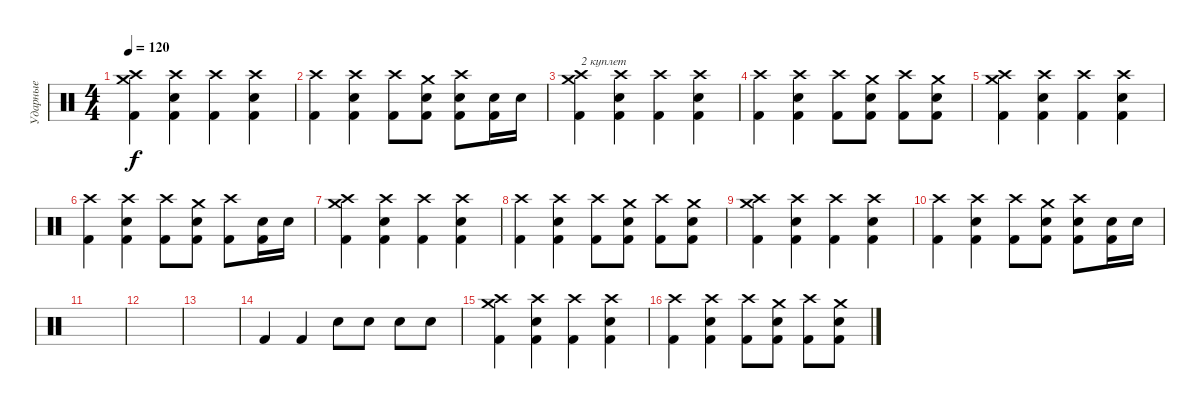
\track ("Ударные" "Ударные") {instrument percussion}
\staff {score}
\articulation defaults
\ts (4 4)
\tempo 120
\clef neutral
\ks c
("Crash medium (hit)" "Crash high (hit)" "Kick (hit) 2").4{dy f} ("Crash high (hit)" "Snare (hit) 2" "Kick (hit) 2").4 ("Crash high (hit)" "Kick (hit) 2").4 ("Crash high (hit)" "Snare (hit) 2" "Kick (hit) 2").4 |
("Crash high (hit)" "Kick (hit) 2").4 ("Crash high (hit)" "Snare (hit) 2" "Kick (hit) 2").4 ("Crash high (hit)" "Kick (hit) 2").8 ("Crash medium (hit)" "Snare (hit) 2" "Kick (hit) 2").8 ("Crash high (hit)" "Snare (hit) 2" "Kick (hit) 2").8 ("Snare (hit) 2" "Kick (hit) 2").16 "Snare (hit) 2".16 |
("Crash medium (hit)" "Crash high (hit)" "Kick (hit) 2").4{txt "2 куплет"} ("Crash high (hit)" "Snare (hit) 2" "Kick (hit) 2").4 ("Crash high (hit)" "Kick (hit) 2").4 ("Crash high (hit)" "Snare (hit) 2" "Kick (hit) 2").4 |
("Crash high (hit)" "Kick (hit) 2").4 ("Crash high (hit)" "Snare (hit) 2" "Kick (hit) 2").4 ("Crash high (hit)" "Kick (hit) 2").8 ("Crash medium (hit)" "Snare (hit) 2" "Kick (hit) 2").8 ("Crash high (hit)" "Kick (hit) 2").8 ("Crash medium (hit)" "Snare (hit) 2" "Kick (hit) 2").8 |
("Crash medium (hit)" "Crash high (hit)" "Kick (hit) 2").4 ("Crash high (hit)" "Snare (hit) 2" "Kick (hit) 2").4 ("Crash high (hit)" "Kick (hit) 2").4 ("Crash high (hit)" "Snare (hit) 2" "Kick (hit) 2").4 |
("Crash high (hit)" "Kick (hit) 2").4 ("Crash high (hit)" "Snare (hit) 2" "Kick (hit) 2").4 ("Crash high (hit)" "Kick (hit) 2").8 ("Crash medium (hit)" "Snare (hit) 2" "Kick (hit) 2").8 ("Crash high (hit)" "Kick (hit) 2").8 ("Snare (hit) 2" "Kick (hit) 2").16 "Snare (hit) 2".16 |
("Crash medium (hit)" "Crash high (hit)" "Kick (hit) 2").4 ("Crash high (hit)" "Snare (hit) 2" "Kick (hit) 2").4 ("Crash high (hit)" "Kick (hit) 2").4 ("Crash high (hit)" "Snare (hit) 2" "Kick (hit) 2").4 |
("Crash high (hit)" "Kick (hit) 2").4 ("Crash high (hit)" "Snare (hit) 2" "Kick (hit) 2").4 ("Crash high (hit)" "Kick (hit) 2").8 ("Crash medium (hit)" "Snare (hit) 2" "Kick (hit) 2").8 ("Crash high (hit)" "Kick (hit) 2").8 ("Crash medium (hit)" "Snare (hit) 2" "Kick (hit) 2").8 |
("Crash medium (hit)" "Crash high (hit)" "Kick (hit) 2").4 ("Crash high (hit)" "Snare (hit) 2" "Kick (hit) 2").4 ("Crash high (hit)" "Kick (hit) 2").4 ("Crash high (hit)" "Snare (hit) 2" "Kick (hit) 2").4 |
("Crash high (hit)" "Kick (hit) 2").4 ("Crash high (hit)" "Snare (hit) 2" "Kick (hit) 2").4 ("Crash high (hit)" "Kick (hit) 2").8 ("Crash medium (hit)" "Snare (hit) 2" "Kick (hit) 2").8 ("Crash high (hit)" "Snare (hit) 2" "Kick (hit) 2").8 ("Snare (hit) 2" "Kick (hit) 2").16 "Snare (hit) 2".16 |
|
|
|
"Kick (hit) 2".4 "Kick (hit) 2".4 "Snare (hit) 2".8 "Snare (hit) 2".8 "Snare (hit) 2".8 "Snare (hit) 2".8 |
("Crash medium (hit)" "Crash high (hit)" "Kick (hit) 2").4 ("Crash high (hit)" "Snare (hit) 2" "Kick (hit) 2").4 ("Crash high (hit)" "Kick (hit) 2").4 ("Crash high (hit)" "Snare (hit) 2" "Kick (hit) 2").4 |
("Crash high (hit)" "Kick (hit) 2").4 ("Crash high (hit)" "Snare (hit) 2" "Kick (hit) 2").4 ("Crash high (hit)" "Kick (hit) 2").8 ("Crash medium (hit)" "Snare (hit) 2" "Kick (hit) 2").8 ("Crash high (hit)" "Kick (hit) 2").8 ("Crash medium (hit)" "Snare (hit) 2" "Kick (hit) 2").8
